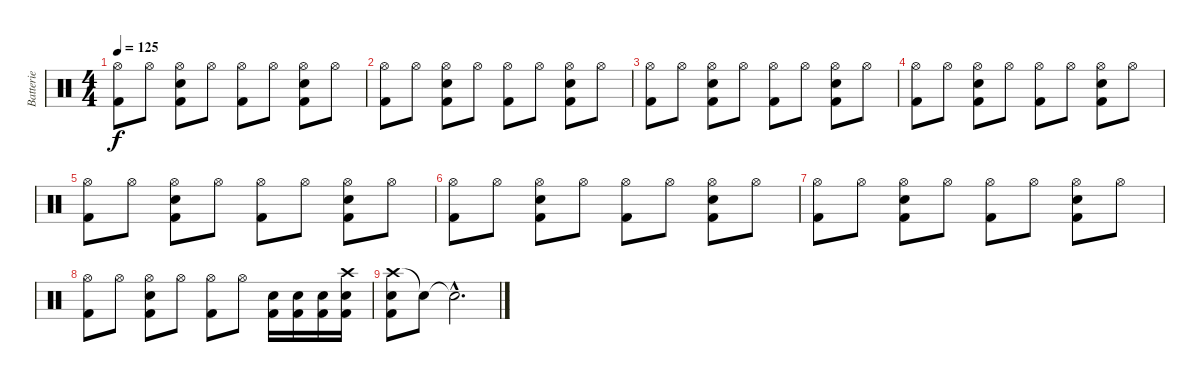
\track ("Batterie" "Batterie") {instrument percussion}
\staff {score}
\articulation defaults
\ts (4 4)
\tempo 125
\clef neutral
\ks c
("Hi-Hat (open)" "Kick (hit) 2").8{dy f} "Hi-Hat (open)".8 ("Hi-Hat (open)" "Snare (hit) 2" "Kick (hit) 2").8 "Hi-Hat (open)".8 ("Hi-Hat (open)" "Kick (hit) 2").8 "Hi-Hat (open)".8 ("Hi-Hat (open)" "Snare (hit) 2" "Kick (hit) 2").8 "Hi-Hat (open)".8 |
("Hi-Hat (open)" "Kick (hit) 2").8 "Hi-Hat (open)".8 ("Hi-Hat (open)" "Snare (hit) 2" "Kick (hit) 2").8 "Hi-Hat (open)".8 ("Hi-Hat (open)" "Kick (hit) 2").8 "Hi-Hat (open)".8 ("Hi-Hat (open)" "Snare (hit) 2" "Kick (hit) 2").8 "Hi-Hat (open)".8 |
("Hi-Hat (open)" "Kick (hit) 2").8 "Hi-Hat (open)".8 ("Hi-Hat (open)" "Snare (hit) 2" "Kick (hit) 2").8 "Hi-Hat (open)".8 ("Hi-Hat (open)" "Kick (hit) 2").8 "Hi-Hat (open)".8 ("Hi-Hat (open)" "Snare (hit) 2" "Kick (hit) 2").8 "Hi-Hat (open)".8 |
("Hi-Hat (open)" "Kick (hit) 2").8 "Hi-Hat (open)".8 ("Hi-Hat (open)" "Snare (hit) 2" "Kick (hit) 2").8 "Hi-Hat (open)".8 ("Hi-Hat (open)" "Kick (hit) 2").8 "Hi-Hat (open)".8 ("Hi-Hat (open)" "Snare (hit) 2" "Kick (hit) 2").8 "Hi-Hat (open)".8 |
("Hi-Hat (open)" "Kick (hit) 2").8 "Hi-Hat (open)".8 ("Hi-Hat (open)" "Snare (hit) 2" "Kick (hit) 2").8 "Hi-Hat (open)".8 ("Hi-Hat (open)" "Kick (hit) 2").8 "Hi-Hat (open)".8 ("Hi-Hat (open)" "Snare (hit) 2" "Kick (hit) 2").8 "Hi-Hat (open)".8 |
("Hi-Hat (open)" "Kick (hit) 2").8 "Hi-Hat (open)".8 ("Hi-Hat (open)" "Snare (hit) 2" "Kick (hit) 2").8 "Hi-Hat (open)".8 ("Hi-Hat (open)" "Kick (hit) 2").8 "Hi-Hat (open)".8 ("Hi-Hat (open)" "Snare (hit) 2" "Kick (hit) 2").8 "Hi-Hat (open)".8 |
("Hi-Hat (open)" "Kick (hit) 2").8 "Hi-Hat (open)".8 ("Hi-Hat (open)" "Snare (hit) 2" "Kick (hit) 2").8 "Hi-Hat (open)".8 ("Hi-Hat (open)" "Kick (hit) 2").8 "Hi-Hat (open)".8 ("Hi-Hat (open)" "Snare (hit) 2" "Kick (hit) 2").8 "Hi-Hat (open)".8 |
("Hi-Hat (open)" "Kick (hit) 2").8 "Hi-Hat (open)".8 ("Hi-Hat (open)" "Snare (hit) 2" "Kick (hit) 2").8 "Hi-Hat (open)".8 ("Hi-Hat (open)" "Kick (hit) 2").8 "Hi-Hat (open)".8 ("Snare (hit) 2" "Kick (hit) 2").16 ("Snare (hit) 2" "Kick (hit) 2").16 ("Snare (hit) 2" "Kick (hit) 2").16 ("Crash high (hit)" "Snare (hit) 2" "Kick (hit) 2").16 |
("Crash high (hit)" "Snare (hit) 2" "Kick (hit) 2").8 "Snare (hit)"{t}.8 "Snare (hit)"{hac t}.2{d}
